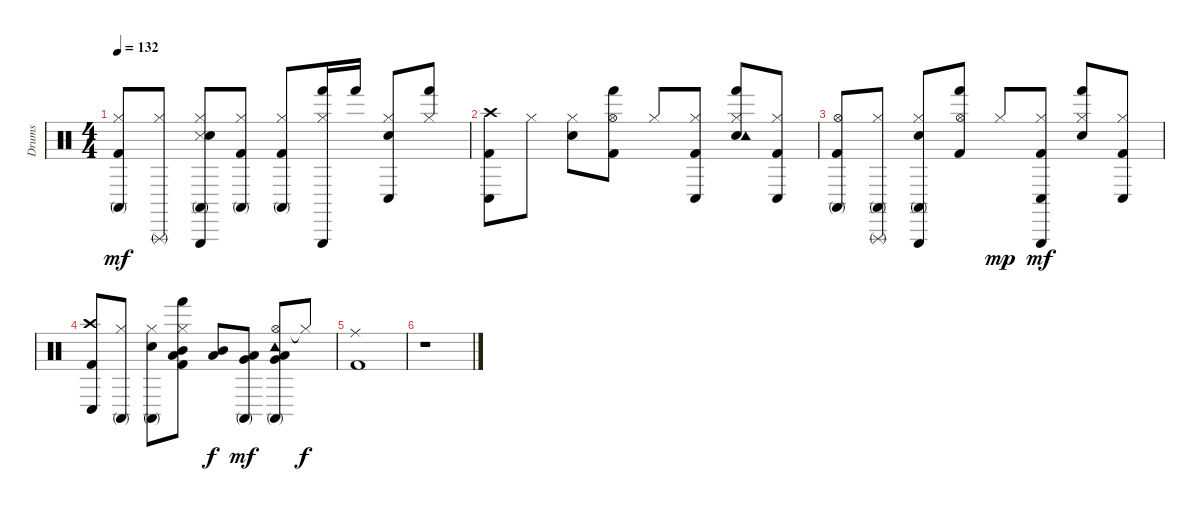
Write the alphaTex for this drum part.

\track ("Drums" "Drums") {instrument percussion}
\staff {score}
\articulation defaults
\ts (4 4)
\tempo 132
\clef neutral
\ks c
("Hi-Hat (closed)" "Kick (hit) 2" "Conga high (mute)").8{dy mf} ("Hi-Hat (closed)" "Triangle (rnute)").8 ("Hi-Hat (closed)" "Snare (side stick) 3" "Electric Snare (hit)" "Triangle (hit)" "Conga high (mute)").8 ("Hi-Hat (closed)" "Kick (hit) 2" "Conga high (mute)").8 ("Hi-Hat (closed)" "Kick (hit) 2" "Conga high (mute)").8 ("Hi-Hat (closed)" "Triangle (hit)" "Hand (hit)").16 "Hand (hit)".16 ("Hi-Hat (closed)" "Electric Snare (hit)" "Conga low (hit)").8 ("Hi-Hat (closed)" "Hand (hit)").8 |
("Crash high (hit)" "Kick (hit) 2" "Conga low (hit)").8 "Hi-Hat (closed)".8 ("Hi-Hat (closed)" "Electric Snare (hit)").8 ("Hi-Hat (open)" "Kick (hit) 2" "Hand (hit)").8 "Hi-Hat (closed)".8 ("Hi-Hat (closed)" "Kick (hit) 2" "Conga low (hit)").8 ("Hi-Hat (closed)" "Electric Snare (hit)" "Tambourine (hit)" "Hand (hit)").8 ("Hi-Hat (closed)" "Kick (hit) 2" "Conga low (hit)").8 |
("Hi-Hat (open)" "Kick (hit) 2" "Conga high (mute)").8 ("Hi-Hat (closed)" "Triangle (rnute)" "Conga high (mute)").8 ("Hi-Hat (closed)" "Electric Snare (hit)" "Triangle (hit)" "Conga high (mute)").8 ("Hi-Hat (open)" "Kick (hit) 2" "Hand (hit)").8 "Hi-Hat (closed)".8{dy mp} ("Hi-Hat (closed)" "Kick (hit) 2" "Triangle (hit)" "Conga low (hit)").8{dy mf} ("Hi-Hat (closed)" "Electric Snare (hit)" "Hand (hit)").8 ("Hi-Hat (closed)" "Kick (hit) 2" "Conga low (hit)").8 |
("Crash high (hit)" "Kick (hit) 2" "Conga low (hit)").8 ("Hi-Hat (closed)" "Conga high (mute)").8 ("Hi-Hat (closed)" "Electric Snare (hit)" "Conga high (mute)").8 ("Hi-Hat (closed)" "Low Tom (hit)" "Kick (hit) 2" "Mid Tom (hit)" "Hand (hit)").8 ("Low Tom (hit)" "Mid Tom (hit)").8{dy f} ("Very Low Tom (hit)" "Low Tom (hit)" "Conga high (mute)").8{dy mf} ("Hi-Hat (open)" "Tambourine (hit)" "Low Floor Tom (hit)" "Very Low Tom (hit)" "Conga high (mute)").8 "Hi-Hat (closed)"{t}.8{dy f} |
("Ride (middle)" "Kick (hit) 2").1 |
r.1
